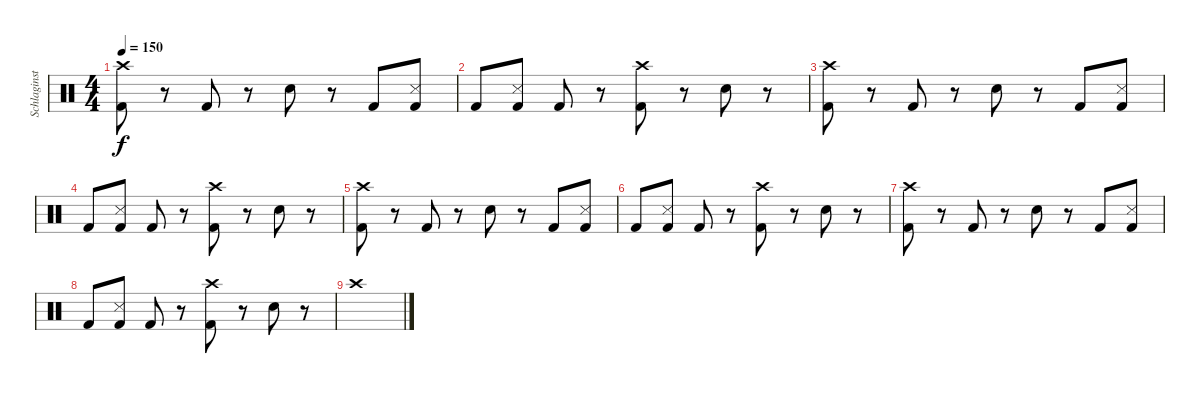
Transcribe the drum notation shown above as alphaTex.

\track ("Schlaginstrumente - Auswahl" "Schlaginst") {instrument percussion}
\staff {score}
\articulation defaults
\ts (4 4)
\tempo 150
\clef neutral
\ks c
("Kick (hit) 2" "Crash high (hit)").8{dy f} r.8 "Kick (hit) 2".8 r.8 "Snare (hit) 2".8 r.8 "Kick (hit) 2".8 ("Metronome (hit)" "Kick (hit) 2").8 |
"Kick (hit) 2".8 ("Metronome (hit)" "Kick (hit) 2").8 "Kick (hit) 2".8 r.8 ("Kick (hit) 2" "Crash high (hit)").8 r.8 "Snare (hit) 2".8 r.8 |
("Kick (hit) 2" "Crash high (hit)").8 r.8 "Kick (hit) 2".8 r.8 "Snare (hit) 2".8 r.8 "Kick (hit) 2".8 ("Metronome (hit)" "Kick (hit) 2").8 |
"Kick (hit) 2".8 ("Metronome (hit)" "Kick (hit) 2").8 "Kick (hit) 2".8 r.8 ("Kick (hit) 2" "Crash high (hit)").8 r.8 "Snare (hit) 2".8 r.8 |
("Kick (hit) 2" "Crash high (hit)").8 r.8 "Kick (hit) 2".8 r.8 "Snare (hit) 2".8 r.8 "Kick (hit) 2".8 ("Metronome (hit)" "Kick (hit) 2").8 |
"Kick (hit) 2".8 ("Metronome (hit)" "Kick (hit) 2").8 "Kick (hit) 2".8 r.8 ("Kick (hit) 2" "Crash high (hit)").8 r.8 "Snare (hit) 2".8 r.8 |
("Kick (hit) 2" "Crash high (hit)").8 r.8 "Kick (hit) 2".8 r.8 "Snare (hit) 2".8 r.8 "Kick (hit) 2".8 ("Metronome (hit)" "Kick (hit) 2").8 |
"Kick (hit) 2".8 ("Metronome (hit)" "Kick (hit) 2").8 "Kick (hit) 2".8 r.8 ("Kick (hit) 2" "Crash high (hit)").8 r.8 "Snare (hit) 2".8 r.8 |
"Crash high (hit)".1
